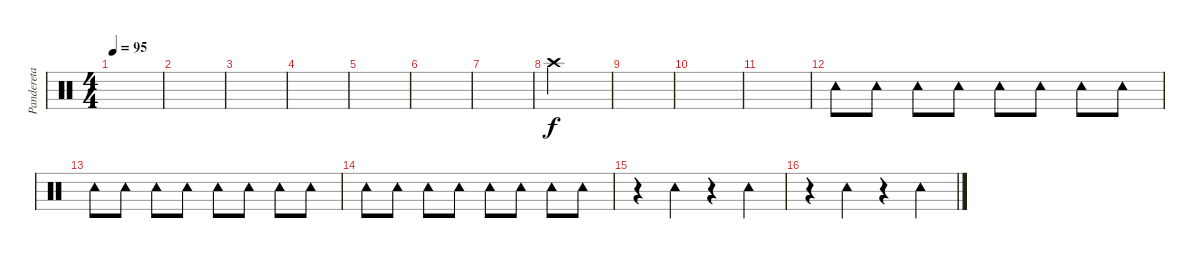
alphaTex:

\track ("Pandereta" "Pandereta") {instrument percussion}
\staff {score}
\articulation defaults
\ts (4 4)
\tempo 95
\clef neutral
\ks c
|
|
|
|
|
|
|
"Crash high (hit)".2 |
|
|
|
"Tambourine (hit)".8 "Tambourine (hit)".8 "Tambourine (hit)".8 "Tambourine (hit)".8 "Tambourine (hit)".8 "Tambourine (hit)".8 "Tambourine (hit)".8 "Tambourine (hit)".8 |
"Tambourine (hit)".8 "Tambourine (hit)".8 "Tambourine (hit)".8 "Tambourine (hit)".8 "Tambourine (hit)".8 "Tambourine (hit)".8 "Tambourine (hit)".8 "Tambourine (hit)".8 |
"Tambourine (hit)".8 "Tambourine (hit)".8 "Tambourine (hit)".8 "Tambourine (hit)".8 "Tambourine (hit)".8 "Tambourine (hit)".8 "Tambourine (hit)".8 "Tambourine (hit)".8 |
r.4 "Tambourine (hit)".4 r.4 "Tambourine (hit)".4 |
r.4 "Tambourine (hit)".4 r.4 "Tambourine (hit)".4
